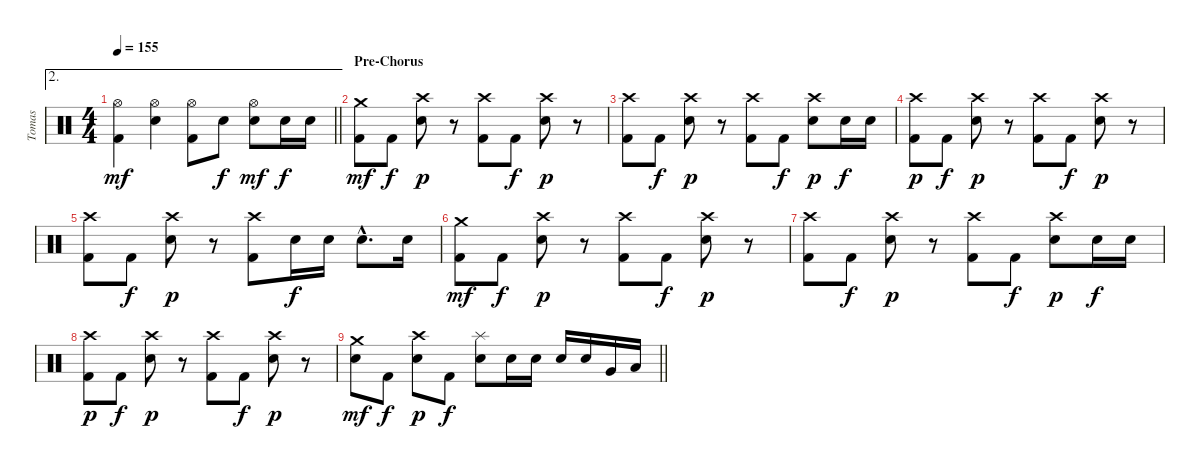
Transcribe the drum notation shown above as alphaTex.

\track ("Tomas" "Tomas") {instrument percussion}
\staff {score}
\articulation defaults
\ae 2
\ts (4 4)
\tempo 155
\clef neutral
\barLineRight lightlight
\ks c
("Kick (hit) 2" "Hi-Hat (open)").4{dy mf} ("Electric Snare (hit)" "Hi-Hat (open)").4 ("Kick (hit) 2" "Hi-Hat (open)").8 "Electric Snare (hit)".8{dy f} ("Electric Snare (hit)" "Hi-Hat (open)").8{dy mf} "Electric Snare (hit)".16{dy f} "Electric Snare (hit)".16 |
\section ("" "Pre-Chorus")
("Kick (hit) 2" "Crash medium (hit)").8{dy mf} "Kick (hit) 2".8{dy f} ("Electric Snare (hit)" "Crash high (hit)").8{dy p} r.8 ("Kick (hit) 2" "Crash high (hit)").8 "Kick (hit) 2".8{dy f} ("Electric Snare (hit)" "Crash high (hit)").8{dy p} r.8 |
("Kick (hit) 2" "Crash high (hit)").8 "Kick (hit) 2".8{dy f} ("Electric Snare (hit)" "Crash high (hit)").8{dy p} r.8 ("Kick (hit) 2" "Crash high (hit)").8 "Kick (hit) 2".8{dy f} ("Electric Snare (hit)" "Crash high (hit)").8{dy p} "Electric Snare (hit)".16{dy f} "Electric Snare (hit)".16 |
("Kick (hit) 2" "Crash high (hit)").8{dy p} "Kick (hit) 2".8{dy f} ("Electric Snare (hit)" "Crash high (hit)").8{dy p} r.8 ("Kick (hit) 2" "Crash high (hit)").8 "Kick (hit) 2".8{dy f} ("Electric Snare (hit)" "Crash high (hit)").8{dy p} r.8 |
("Kick (hit) 2" "Crash high (hit)").8 "Kick (hit) 2".8{dy f} ("Electric Snare (hit)" "Crash high (hit)").8{dy p} r.8 ("Kick (hit) 2" "Crash high (hit)").8 "Electric Snare (hit)".16{dy f} "Electric Snare (hit)".16 "Electric Snare (hit)"{hac}.8{d} "Electric Snare (hit)".16 |
("Kick (hit) 2" "Crash medium (hit)").8{dy mf} "Kick (hit) 2".8{dy f} ("Electric Snare (hit)" "Crash high (hit)").8{dy p} r.8 ("Kick (hit) 2" "Crash high (hit)").8 "Kick (hit) 2".8{dy f} ("Electric Snare (hit)" "Crash high (hit)").8{dy p} r.8 |
("Kick (hit) 2" "Crash high (hit)").8 "Kick (hit) 2".8{dy f} ("Electric Snare (hit)" "Crash high (hit)").8{dy p} r.8 ("Kick (hit) 2" "Crash high (hit)").8 "Kick (hit) 2".8{dy f} ("Electric Snare (hit)" "Crash high (hit)").8{dy p} "Electric Snare (hit)".16{dy f} "Electric Snare (hit)".16 |
("Kick (hit) 2" "Crash high (hit)").8{dy p} "Kick (hit) 2".8{dy f} ("Electric Snare (hit)" "Crash high (hit)").8{dy p} r.8 ("Kick (hit) 2" "Crash high (hit)").8 "Kick (hit) 2".8{dy f} ("Electric Snare (hit)" "Crash high (hit)").8{dy p} r.8 |
\barLineRight lightlight
("Electric Snare (hit)" "Crash medium (hit)").8{dy mf} "Kick (hit) 2".8{dy f} ("Electric Snare (hit)" "Crash high (hit)").8{dy p} "Kick (hit) 2".8{dy f} ("Electric Snare (hit)" "Splash (hit)").8 "Electric Snare (hit)".16 "Electric Snare (hit)".16 "Electric Snare (hit)".16 "Electric Snare (hit)".16 "Very Low Tom (hit)".16 "Low Floor Tom (hit)".16
